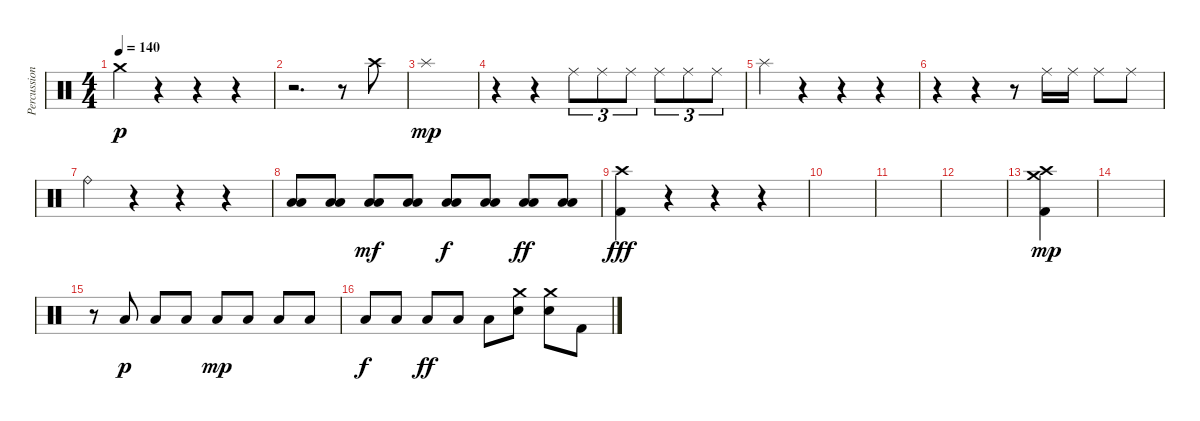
\track ("Percussion" "Percussion") {instrument percussion}
\staff {score}
\articulation defaults
\ts (4 4)
\tempo 140
\clef neutral
\ks c "Crash medium (hit)".4{dy p}
r.4 r.4 r.4 |
r.2{d} r.8 "Crash high (hit)".8 |
"Splash (hit)".1{dy mp} |
r.4 r.4 "Ride (middle)".8{tu (3 2)} "Ride (middle)".8{tu (3 2)} "Ride (middle)".8{tu (3 2)} "Ride (middle)".8{tu (3 2)} "Ride (middle)".8{tu (3 2)} "Ride (middle)".8{tu (3 2)} |
"Splash (hit)".4 r.4 r.4 r.4 |
r.4 r.4 r.8 "Ride (middle)".16 "Ride (middle)".16 "Ride (middle)".8 "Ride (middle)".8 |
"Ride (bell)".4 r.4 r.4 r.4 |
("Low Tom (hit)" "Low Floor Tom (hit)").8 ("Low Tom (hit)" "Low Floor Tom (hit)").8 ("Low Tom (hit)" "Low Floor Tom (hit)").8{dy mf} ("Low Tom (hit)" "Low Floor Tom (hit)").8 ("Low Tom (hit)" "Low Floor Tom (hit)").8{dy f} ("Low Tom (hit)" "Low Floor Tom (hit)").8 ("Low Tom (hit)" "Low Floor Tom (hit)").8{dy ff} ("Low Tom (hit)" "Low Floor Tom (hit)").8 |
("Crash high (hit)" "Kick (hit) 2").4{dy fff} r.4 r.4 r.4 |
|
|
|
("Crash high (hit)" "Crash medium (hit)" "Kick (hit) 2").4{dy mp} |
|
r.8 "Low Floor Tom (hit)".8{dy p} "Low Floor Tom (hit)".8 "Low Floor Tom (hit)".8 "Low Floor Tom (hit)".8{dy mp} "Low Floor Tom (hit)".8 "Low Floor Tom (hit)".8 "Low Floor Tom (hit)".8 |
"Low Floor Tom (hit)".8{dy f} "Low Floor Tom (hit)".8 "Low Floor Tom (hit)".8{dy ff} "Low Floor Tom (hit)".8 "Low Floor Tom (hit)".8 ("Crash medium (hit)" "Electric Snare (hit)").8 ("Crash medium (hit)" "Electric Snare (hit)").8 "Kick (hit) 2".8
